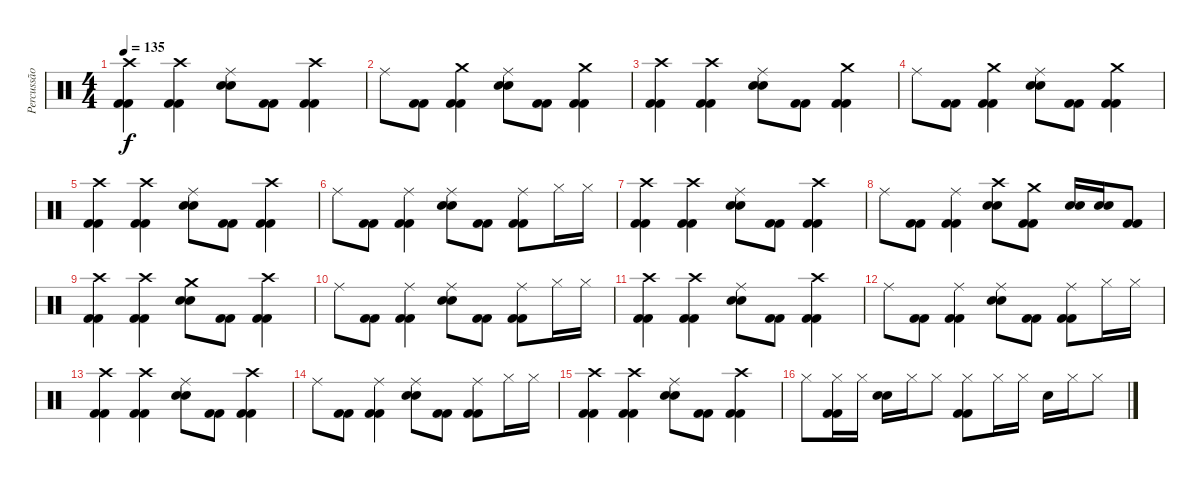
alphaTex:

\track ("Percussão" "Percussão") {instrument percussion}
\staff {score}
\articulation defaults
\ts (4 4)
\tempo 135
\clef neutral
\ks c
("Crash high (hit)" "Kick (hit) 2" "Kick (hit) 2").4{dy f} ("Crash high (hit)" "Kick (hit) 2" "Kick (hit) 2").4 ("Ride (middle)" "Electric Snare (hit)" "Electric Snare (hit)").8 ("Kick (hit) 2" "Kick (hit) 2").8 ("Crash high (hit)" "Kick (hit) 2" "Kick (hit) 2").4 |
"Ride (middle)".8 ("Kick (hit) 2" "Kick (hit) 2").8 ("Crash medium (hit)" "Kick (hit) 2" "Kick (hit) 2").4 ("Ride (middle)" "Electric Snare (hit)" "Electric Snare (hit)").8 ("Kick (hit) 2" "Kick (hit) 2").8 ("Crash medium (hit)" "Kick (hit) 2" "Kick (hit) 2").4 |
("Crash high (hit)" "Kick (hit) 2" "Kick (hit) 2").4 ("Crash high (hit)" "Kick (hit) 2" "Kick (hit) 2").4 ("Ride (middle)" "Electric Snare (hit)" "Electric Snare (hit)").8 ("Kick (hit) 2" "Kick (hit) 2").8 ("Crash medium (hit)" "Kick (hit) 2" "Kick (hit) 2").4 |
"Ride (middle)".8 ("Kick (hit) 2" "Kick (hit) 2").8 ("Crash medium (hit)" "Kick (hit) 2" "Kick (hit) 2").4 ("Ride (middle)" "Electric Snare (hit)" "Electric Snare (hit)").8 ("Kick (hit) 2" "Kick (hit) 2").8 ("Crash medium (hit)" "Kick (hit) 2" "Kick (hit) 2").4 |
("Crash high (hit)" "Kick (hit) 2" "Kick (hit) 2").4 ("Crash high (hit)" "Kick (hit) 2" "Kick (hit) 2").4 ("Ride (middle)" "Electric Snare (hit)" "Electric Snare (hit)").8 ("Kick (hit) 2" "Kick (hit) 2").8 ("Crash high (hit)" "Kick (hit) 2" "Kick (hit) 2").4 |
"Ride (middle)".8 ("Kick (hit) 2" "Kick (hit) 2").8 ("Ride (middle)" "Kick (hit) 2" "Kick (hit) 2").4 ("Ride (middle)" "Electric Snare (hit)" "Electric Snare (hit)").8 ("Kick (hit) 2" "Kick (hit) 2").8 ("Ride (middle)" "Kick (hit) 2" "Kick (hit) 2").8 "Hi-Hat (closed)".16 "Hi-Hat (closed)".16 |
("Crash high (hit)" "Kick (hit) 2" "Kick (hit) 2").4 ("Crash high (hit)" "Kick (hit) 2" "Kick (hit) 2").4 ("Ride (middle)" "Electric Snare (hit)" "Electric Snare (hit)").8 ("Kick (hit) 2" "Kick (hit) 2").8 ("Crash high (hit)" "Kick (hit) 2" "Kick (hit) 2").4 |
"Ride (middle)".8 ("Kick (hit) 2" "Kick (hit) 2").8 ("Ride (middle)" "Kick (hit) 2" "Kick (hit) 2").4 ("Crash high (hit)" "Electric Snare (hit)" "Electric Snare (hit)").8 ("Crash medium (hit)" "Kick (hit) 2" "Kick (hit) 2").8 ("Electric Snare (hit)" "Electric Snare (hit)").16 ("Electric Snare (hit)" "Electric Snare (hit)").16 ("Kick (hit) 2" "Kick (hit) 2").8 |
("Crash high (hit)" "Kick (hit) 2" "Kick (hit) 2").4 ("Crash high (hit)" "Kick (hit) 2" "Kick (hit) 2").4 ("Crash medium (hit)" "Electric Snare (hit)" "Electric Snare (hit)").8 ("Kick (hit) 2" "Kick (hit) 2").8 ("Crash high (hit)" "Kick (hit) 2" "Kick (hit) 2").4 |
"Ride (middle)".8 ("Kick (hit) 2" "Kick (hit) 2").8 ("Ride (middle)" "Kick (hit) 2" "Kick (hit) 2").4 ("Ride (middle)" "Electric Snare (hit)" "Electric Snare (hit)").8 ("Kick (hit) 2" "Kick (hit) 2").8 ("Ride (middle)" "Kick (hit) 2" "Kick (hit) 2").8 "Hi-Hat (closed)".16 "Hi-Hat (closed)".16 |
("Crash high (hit)" "Kick (hit) 2" "Kick (hit) 2").4 ("Crash high (hit)" "Kick (hit) 2" "Kick (hit) 2").4 ("Ride (middle)" "Electric Snare (hit)" "Electric Snare (hit)").8 ("Kick (hit) 2" "Kick (hit) 2").8 ("Crash high (hit)" "Kick (hit) 2" "Kick (hit) 2").4 |
"Ride (middle)".8 ("Kick (hit) 2" "Kick (hit) 2").8 ("Ride (middle)" "Kick (hit) 2" "Kick (hit) 2").4 ("Ride (middle)" "Electric Snare (hit)" "Electric Snare (hit)").8 ("Kick (hit) 2" "Kick (hit) 2").8 ("Ride (middle)" "Kick (hit) 2" "Kick (hit) 2").8 "Hi-Hat (closed)".16 "Hi-Hat (closed)".16 |
("Crash high (hit)" "Kick (hit) 2" "Kick (hit) 2").4 ("Crash high (hit)" "Kick (hit) 2" "Kick (hit) 2").4 ("Ride (middle)" "Electric Snare (hit)" "Electric Snare (hit)").8 ("Kick (hit) 2" "Kick (hit) 2").8 ("Crash high (hit)" "Kick (hit) 2" "Kick (hit) 2").4 |
"Ride (middle)".8 ("Kick (hit) 2" "Kick (hit) 2").8 ("Ride (middle)" "Kick (hit) 2" "Kick (hit) 2").4 ("Ride (middle)" "Electric Snare (hit)" "Electric Snare (hit)").8 ("Kick (hit) 2" "Kick (hit) 2").8 ("Ride (middle)" "Kick (hit) 2" "Kick (hit) 2").8 "Hi-Hat (closed)".16 "Hi-Hat (closed)".16 |
("Crash high (hit)" "Kick (hit) 2" "Kick (hit) 2").4 ("Crash high (hit)" "Kick (hit) 2" "Kick (hit) 2").4 ("Ride (middle)" "Electric Snare (hit)" "Electric Snare (hit)").8 ("Kick (hit) 2" "Kick (hit) 2").8 ("Crash high (hit)" "Kick (hit) 2" "Kick (hit) 2").4 |
"Hi-Hat (closed)".8 ("Hi-Hat (closed)" "Kick (hit) 2" "Kick (hit) 2").16 "Hi-Hat (closed)".16 ("Electric Snare (hit)" "Electric Snare (hit)").16 "Hi-Hat (closed)".16 "Hi-Hat (closed)".8 ("Hi-Hat (closed)" "Kick (hit) 2" "Kick (hit) 2").8 "Hi-Hat (closed)".16 "Hi-Hat (closed)".16 "Electric Snare (hit)".16 "Hi-Hat (closed)".16 "Hi-Hat (closed)".8
